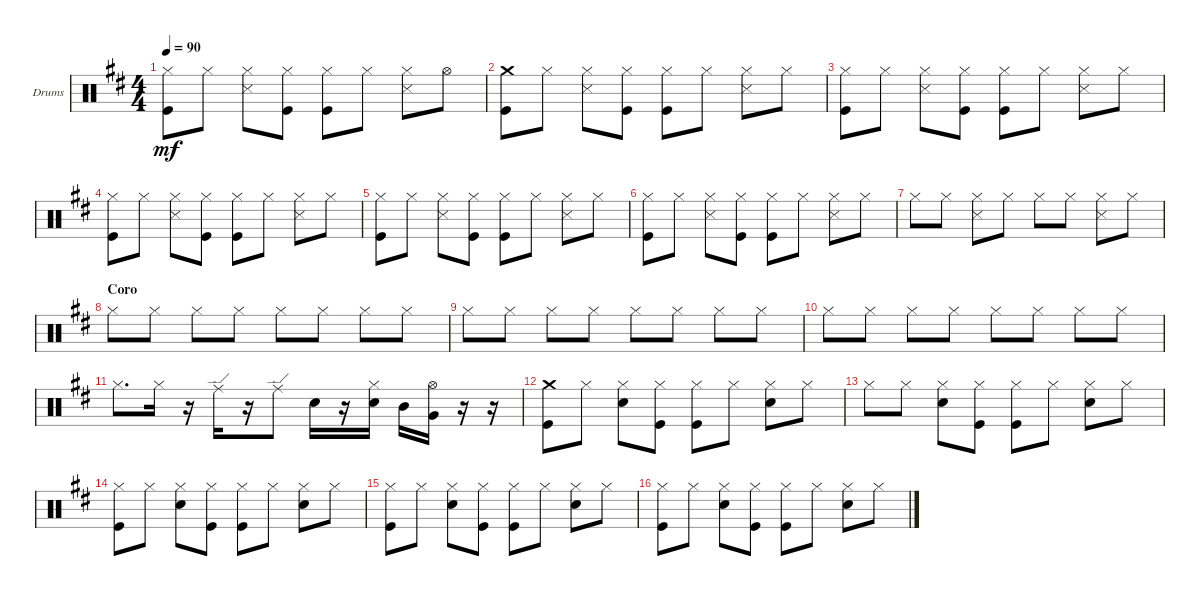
\defaultSystemsLayout 4
\bracketExtendMode groupsimilarinstruments
\firstSystemTrackNameOrientation horizontal
\otherSystemsTrackNameOrientation horizontal
\track ("Drumkit" "Drums") {multiBarRest instrument percussion}
\staff {score}
\articulation defaults
\ts (4 4)
\tempo 90
\clef neutral
\scale
0.333333
\ks d
("Hi-Hat (closed)" "Kick (hit)").8{dy mf} "Hi-Hat (closed)".8 ("Hi-Hat (closed)" "Snare (side stick) 3").8 ("Hi-Hat (closed)" "Kick (hit)").8 ("Hi-Hat (closed)" "Kick (hit)").8 "Hi-Hat (closed)".8 ("Hi-Hat (closed)" "Snare (side stick) 3").8 "Hi-Hat (open)".8 |
\scale
0.333333 ("Crash medium (hit)" "Kick (hit)").8 "Hi-Hat (closed)".8 ("Hi-Hat (closed)" "Snare (side stick) 3").8 ("Hi-Hat (closed)" "Kick (hit)").8 ("Hi-Hat (closed)" "Kick (hit)").8 "Hi-Hat (closed)".8 ("Hi-Hat (closed)" "Snare (side stick) 3").8 "Hi-Hat (closed)".8 |
\scale
0.333333 ("Hi-Hat (closed)" "Kick (hit)").8 "Hi-Hat (closed)".8 ("Hi-Hat (closed)" "Snare (side stick) 3").8 ("Hi-Hat (closed)" "Kick (hit)").8 ("Hi-Hat (closed)" "Kick (hit)").8 "Hi-Hat (closed)".8 ("Hi-Hat (closed)" "Snare (side stick) 3").8 "Hi-Hat (closed)".8 |
\scale
0.333333 ("Hi-Hat (closed)" "Kick (hit)").8 "Hi-Hat (closed)".8 ("Hi-Hat (closed)" "Snare (side stick) 3").8 ("Hi-Hat (closed)" "Kick (hit)").8 ("Hi-Hat (closed)" "Kick (hit)").8 "Hi-Hat (closed)".8 ("Hi-Hat (closed)" "Snare (side stick) 3").8 "Hi-Hat (closed)".8 |
\scale
0.333333 ("Hi-Hat (closed)" "Kick (hit)").8 "Hi-Hat (closed)".8 ("Hi-Hat (closed)" "Snare (side stick) 3").8 ("Hi-Hat (closed)" "Kick (hit)").8 ("Hi-Hat (closed)" "Kick (hit)").8 "Hi-Hat (closed)".8 ("Hi-Hat (closed)" "Snare (side stick) 3").8 "Hi-Hat (closed)".8 |
\scale
0.333333 ("Hi-Hat (closed)" "Kick (hit)").8 "Hi-Hat (closed)".8 ("Hi-Hat (closed)" "Snare (side stick) 3").8 ("Hi-Hat (closed)" "Kick (hit)").8 ("Hi-Hat (closed)" "Kick (hit)").8 "Hi-Hat (closed)".8 ("Hi-Hat (closed)" "Snare (side stick) 3").8 "Hi-Hat (closed)".8 |
\scale
0.333333 "Hi-Hat (closed)".8 "Hi-Hat (closed)".8 ("Hi-Hat (closed)" "Snare (side stick) 3").8 "Hi-Hat (closed)".8 "Hi-Hat (closed)".8 "Hi-Hat (closed)".8 ("Hi-Hat (closed)" "Snare (side stick) 3").8 "Hi-Hat (closed)".8 |
\section ("" "Coro")
\scale
0.333333 "Hi-Hat (closed)".8 "Hi-Hat (closed)".8 "Hi-Hat (closed)".8 "Hi-Hat (closed)".8 "Hi-Hat (closed)".8 "Hi-Hat (closed)".8 "Hi-Hat (closed)".8 "Hi-Hat (closed)".8 |
\scale
0.333333 "Hi-Hat (closed)".8 "Hi-Hat (closed)".8 "Hi-Hat (closed)".8 "Hi-Hat (closed)".8 "Hi-Hat (closed)".8 "Hi-Hat (closed)".8 "Hi-Hat (closed)".8 "Hi-Hat (closed)".8 |
\scale
0.333333 "Hi-Hat (closed)".8 "Hi-Hat (closed)".8 "Hi-Hat (closed)".8 "Hi-Hat (closed)".8 "Hi-Hat (closed)".8 "Hi-Hat (closed)".8 "Hi-Hat (closed)".8 "Hi-Hat (closed)".8 |
\scale
0.333333 "Hi-Hat (closed)".8{d} "Hi-Hat (closed)".16 r.16 "Ride (edge)".16 r.16 "Ride (edge)".8 "Snare (hit) 2".16 r.16 ("Snare (hit) 2" "Hi-Hat (closed)").16 "Mid Tom (hit)".16 ("Very Low Tom (hit)" "Hi-Hat (open)").16 r.16 r.16 |
\scale
0.333333 ("Kick (hit)" "Crash medium (hit)").8 "Hi-Hat (closed)".8 ("Hi-Hat (closed)" "Snare (hit) 2").8 ("Hi-Hat (closed)" "Kick (hit)").8 ("Hi-Hat (closed)" "Kick (hit)").8 "Hi-Hat (closed)".8 ("Hi-Hat (closed)" "Snare (hit) 2").8 "Hi-Hat (closed)".8 |
\scale
0.333333 "Hi-Hat (closed)".8 "Hi-Hat (closed)".8 ("Hi-Hat (closed)" "Snare (hit) 2").8 ("Hi-Hat (closed)" "Kick (hit)").8 ("Hi-Hat (closed)" "Kick (hit)").8 "Hi-Hat (closed)".8 ("Hi-Hat (closed)" "Snare (hit) 2").8 "Hi-Hat (closed)".8 |
\scale
0.333333 ("Hi-Hat (closed)" "Kick (hit)").8 "Hi-Hat (closed)".8 ("Hi-Hat (closed)" "Snare (hit) 2").8 ("Hi-Hat (closed)" "Kick (hit)").8 ("Hi-Hat (closed)" "Kick (hit)").8 "Hi-Hat (closed)".8 ("Hi-Hat (closed)" "Snare (hit) 2").8 "Hi-Hat (closed)".8 |
\scale
0.333333 ("Hi-Hat (closed)" "Kick (hit)").8 "Hi-Hat (closed)".8 ("Hi-Hat (closed)" "Snare (hit) 2").8 ("Hi-Hat (closed)" "Kick (hit)").8 ("Hi-Hat (closed)" "Kick (hit)").8 "Hi-Hat (closed)".8 ("Hi-Hat (closed)" "Snare (hit) 2").8 "Hi-Hat (closed)".8 |
\scale
0.333333 ("Hi-Hat (closed)" "Kick (hit)").8 "Hi-Hat (closed)".8 ("Hi-Hat (closed)" "Snare (hit) 2").8 ("Hi-Hat (closed)" "Kick (hit)").8 ("Hi-Hat (closed)" "Kick (hit)").8 "Hi-Hat (closed)".8 ("Hi-Hat (closed)" "Snare (hit) 2").8 "Hi-Hat (closed)".8
